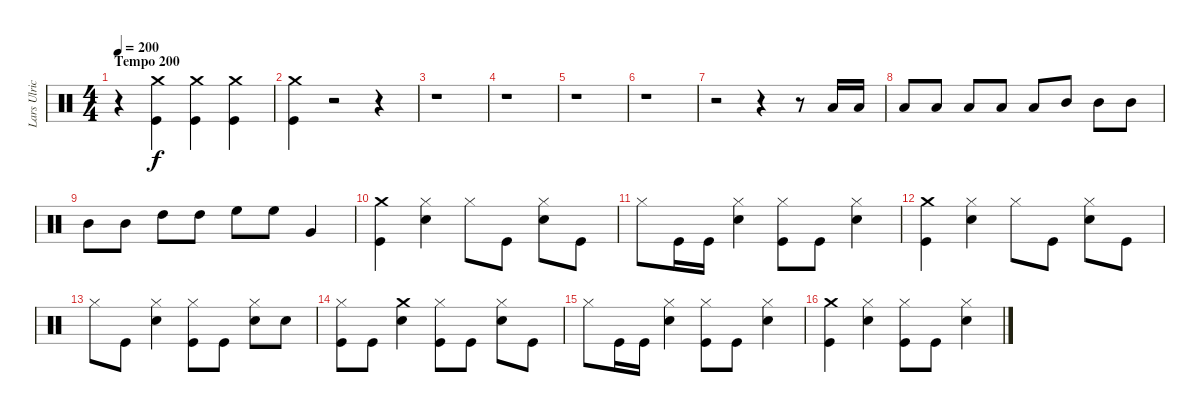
\track ("Lars Ulrich (Drums)" "Lars Ulric") {instrument percussion}
\staff {score}
\articulation defaults
\ts (4 4)
\section ("" "Tempo 200")
\tempo 200
\clef neutral
\ks c
r.4{dy f} ("Kick (hit)" "Crash medium (hit)").4 ("Kick (hit)" "Crash medium (hit)").4 ("Kick (hit)" "Crash medium (hit)").4 |
("Kick (hit)" "Crash medium (hit)").4 r.2 r.4 |
r.1 |
r.1 |
r.1 |
r.1 |
r.2 r.4 r.8 "Low Tom (hit)".16 "Low Tom (hit)".16 |
"Low Tom (hit)".8 "Low Tom (hit)".8 "Low Tom (hit)".8 "Low Tom (hit)".8 "Low Tom (hit)".8 "Mid Tom (hit)".8 "Mid Tom (hit)".8 "Mid Tom (hit)".8 |
"Mid Tom (hit)".8 "Mid Tom (hit)".8 "High Tom (hit)".8 "High Tom (hit)".8 "High Floor Tom (hit)".8 "High Floor Tom (hit)".8 "Very Low Tom (hit)".4 |
("Kick (hit)" "Crash medium (hit)").4 ("Hi-Hat (closed)" "Snare (hit) 2").4 "Hi-Hat (closed)".8 "Kick (hit)".8 ("Snare (hit) 2" "Hi-Hat (closed)").8 "Kick (hit)".8 |
"Hi-Hat (closed)".8 "Kick (hit)".16 "Kick (hit)".16 ("Snare (hit) 2" "Hi-Hat (closed)").4 ("Kick (hit)" "Hi-Hat (closed)").8 "Kick (hit)".8 ("Snare (hit) 2" "Hi-Hat (closed)").4 |
("Kick (hit)" "Crash medium (hit)").4 ("Snare (hit) 2" "Hi-Hat (closed)").4 "Hi-Hat (closed)".8 "Kick (hit)".8 ("Snare (hit) 2" "Hi-Hat (closed)").8 "Kick (hit)".8 |
"Hi-Hat (closed)".8 "Kick (hit)".8 ("Snare (hit) 2" "Hi-Hat (closed)").4 ("Kick (hit)" "Hi-Hat (closed)").8 "Kick (hit)".8 ("Snare (hit) 2" "Hi-Hat (closed)").8 "Snare (hit) 2".8 |
("Hi-Hat (closed)" "Kick (hit)").8 "Kick (hit)".8 ("Crash medium (hit)" "Snare (hit) 2").4 ("Hi-Hat (closed)" "Kick (hit)").8 "Kick (hit)".8 ("Snare (hit) 2" "Hi-Hat (closed)").8 "Kick (hit)".8 |
"Hi-Hat (closed)".8 "Kick (hit)".16 "Kick (hit)".16 ("Snare (hit) 2" "Hi-Hat (closed)").4 ("Kick (hit)" "Hi-Hat (closed)").8 "Kick (hit)".8 ("Snare (hit) 2" "Hi-Hat (closed)").4 |
("Kick (hit)" "Crash medium (hit)").4 ("Snare (hit) 2" "Hi-Hat (closed)").4 ("Hi-Hat (closed)" "Kick (hit)").8 "Kick (hit)".8 ("Snare (hit) 2" "Hi-Hat (closed)").4
